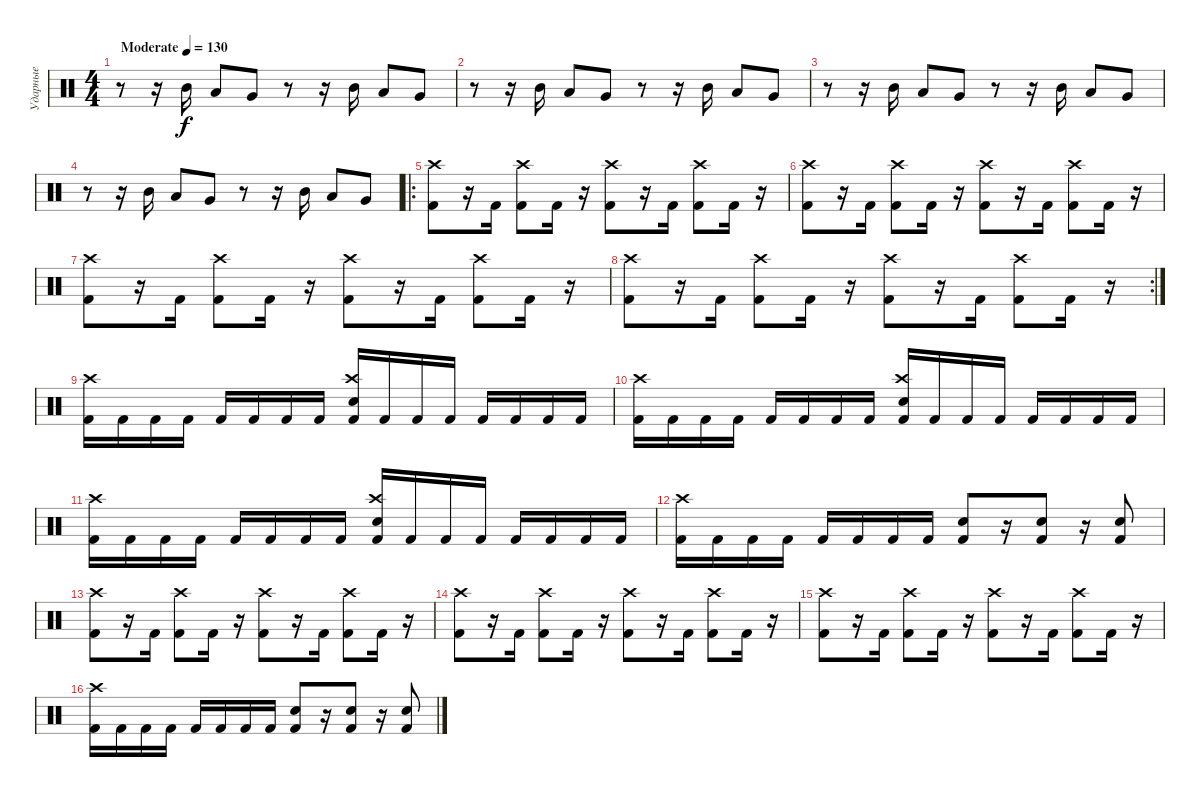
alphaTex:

\track ("Ударные" "Ударные") {instrument percussion}
\staff {score}
\articulation defaults
\ts (4 4)
\tempo (130 "Moderate")
\clef neutral
\ks c
r.8{dy f} r.16 "Mid Tom (hit)".16 "Low Floor Tom (hit)".8 "Very Low Tom (hit)".8 r.8 r.16 "Mid Tom (hit)".16 "Low Floor Tom (hit)".8 "Very Low Tom (hit)".8 |
r.8 r.16 "Mid Tom (hit)".16 "Low Floor Tom (hit)".8 "Very Low Tom (hit)".8 r.8 r.16 "Mid Tom (hit)".16 "Low Floor Tom (hit)".8 "Very Low Tom (hit)".8 |
r.8 r.16 "Mid Tom (hit)".16 "Low Tom (hit)".8 "Very Low Tom (hit)".8 r.8 r.16 "Mid Tom (hit)".16 "Low Tom (hit)".8 "Very Low Tom (hit)".8 |
r.8 r.16 "Mid Tom (hit)".16 "Low Tom (hit)".8 "Very Low Tom (hit)".8 r.8 r.16 "Mid Tom (hit)".16 "Low Tom (hit)".8 "Very Low Tom (hit)".8 |
\ro
("Kick (hit) 2" "Crash high (hit)").8 r.16 "Kick (hit) 2".16 ("Kick (hit) 2" "Crash high (hit)").8 "Kick (hit) 2".16 r.16 ("Kick (hit) 2" "Crash high (hit)").8 r.16 "Kick (hit) 2".16 ("Kick (hit) 2" "Crash high (hit)").8 "Kick (hit) 2".16 r.16 |
("Kick (hit) 2" "Crash high (hit)").8 r.16 "Kick (hit) 2".16 ("Kick (hit) 2" "Crash high (hit)").8 "Kick (hit) 2".16 r.16 ("Kick (hit) 2" "Crash high (hit)").8 r.16 "Kick (hit) 2".16 ("Kick (hit) 2" "Crash high (hit)").8 "Kick (hit) 2".16 r.16 |
("Kick (hit) 2" "Crash high (hit)").8 r.16 "Kick (hit) 2".16 ("Kick (hit) 2" "Crash high (hit)").8 "Kick (hit) 2".16 r.16 ("Kick (hit) 2" "Crash high (hit)").8 r.16 "Kick (hit) 2".16 ("Kick (hit) 2" "Crash high (hit)").8 "Kick (hit) 2".16 r.16 |
\rc 2
("Kick (hit) 2" "Crash high (hit)").8 r.16 "Kick (hit) 2".16 ("Kick (hit) 2" "Crash high (hit)").8 "Kick (hit) 2".16 r.16 ("Kick (hit) 2" "Crash high (hit)").8 r.16 "Kick (hit) 2".16 ("Kick (hit) 2" "Crash high (hit)").8 "Kick (hit) 2".16 r.16 |
("Crash high (hit)" "Kick (hit) 2").16 "Kick (hit) 2".16 "Kick (hit) 2".16 "Kick (hit) 2".16 "Kick (hit) 2".16 "Kick (hit) 2".16 "Kick (hit) 2".16 "Kick (hit) 2".16 ("Crash high (hit)" "Snare (hit) 2" "Kick (hit) 2").16 "Kick (hit) 2".16 "Kick (hit) 2".16 "Kick (hit) 2".16 "Kick (hit) 2".16 "Kick (hit) 2".16 "Kick (hit) 2".16 "Kick (hit) 2".16 |
("Crash high (hit)" "Kick (hit) 2").16 "Kick (hit) 2".16 "Kick (hit) 2".16 "Kick (hit) 2".16 "Kick (hit) 2".16 "Kick (hit) 2".16 "Kick (hit) 2".16 "Kick (hit) 2".16 ("Crash high (hit)" "Snare (hit) 2" "Kick (hit) 2").16 "Kick (hit) 2".16 "Kick (hit) 2".16 "Kick (hit) 2".16 "Kick (hit) 2".16 "Kick (hit) 2".16 "Kick (hit) 2".16 "Kick (hit) 2".16 |
("Crash high (hit)" "Kick (hit) 2").16 "Kick (hit) 2".16 "Kick (hit) 2".16 "Kick (hit) 2".16 "Kick (hit) 2".16 "Kick (hit) 2".16 "Kick (hit) 2".16 "Kick (hit) 2".16 ("Crash high (hit)" "Snare (hit) 2" "Kick (hit) 2").16 "Kick (hit) 2".16 "Kick (hit) 2".16 "Kick (hit) 2".16 "Kick (hit) 2".16 "Kick (hit) 2".16 "Kick (hit) 2".16 "Kick (hit) 2".16 |
("Crash high (hit)" "Kick (hit) 2").16 "Kick (hit) 2".16 "Kick (hit) 2".16 "Kick (hit) 2".16 "Kick (hit) 2".16 "Kick (hit) 2".16 "Kick (hit) 2".16 "Kick (hit) 2".16 ("Snare (hit) 2" "Kick (hit) 2").8 r.16 ("Snare (hit) 2" "Kick (hit) 2").8 r.16 ("Snare (hit) 2" "Kick (hit) 2").8 |
("Kick (hit) 2" "Crash high (hit)").8 r.16 "Kick (hit) 2".16 ("Kick (hit) 2" "Crash high (hit)").8 "Kick (hit) 2".16 r.16 ("Kick (hit) 2" "Crash high (hit)").8 r.16 "Kick (hit) 2".16 ("Kick (hit) 2" "Crash high (hit)").8 "Kick (hit) 2".16 r.16 |
("Kick (hit) 2" "Crash high (hit)").8 r.16 "Kick (hit) 2".16 ("Kick (hit) 2" "Crash high (hit)").8 "Kick (hit) 2".16 r.16 ("Kick (hit) 2" "Crash high (hit)").8 r.16 "Kick (hit) 2".16 ("Kick (hit) 2" "Crash high (hit)").8 "Kick (hit) 2".16 r.16 |
("Kick (hit) 2" "Crash high (hit)").8 r.16 "Kick (hit) 2".16 ("Kick (hit) 2" "Crash high (hit)").8 "Kick (hit) 2".16 r.16 ("Kick (hit) 2" "Crash high (hit)").8 r.16 "Kick (hit) 2".16 ("Kick (hit) 2" "Crash high (hit)").8 "Kick (hit) 2".16 r.16 |
("Crash high (hit)" "Kick (hit) 2").16 "Kick (hit) 2".16 "Kick (hit) 2".16 "Kick (hit) 2".16 "Kick (hit) 2".16 "Kick (hit) 2".16 "Kick (hit) 2".16 "Kick (hit) 2".16 ("Snare (hit) 2" "Kick (hit) 2").8 r.16 ("Snare (hit) 2" "Kick (hit) 2").8 r.16 ("Snare (hit) 2" "Kick (hit) 2").8
